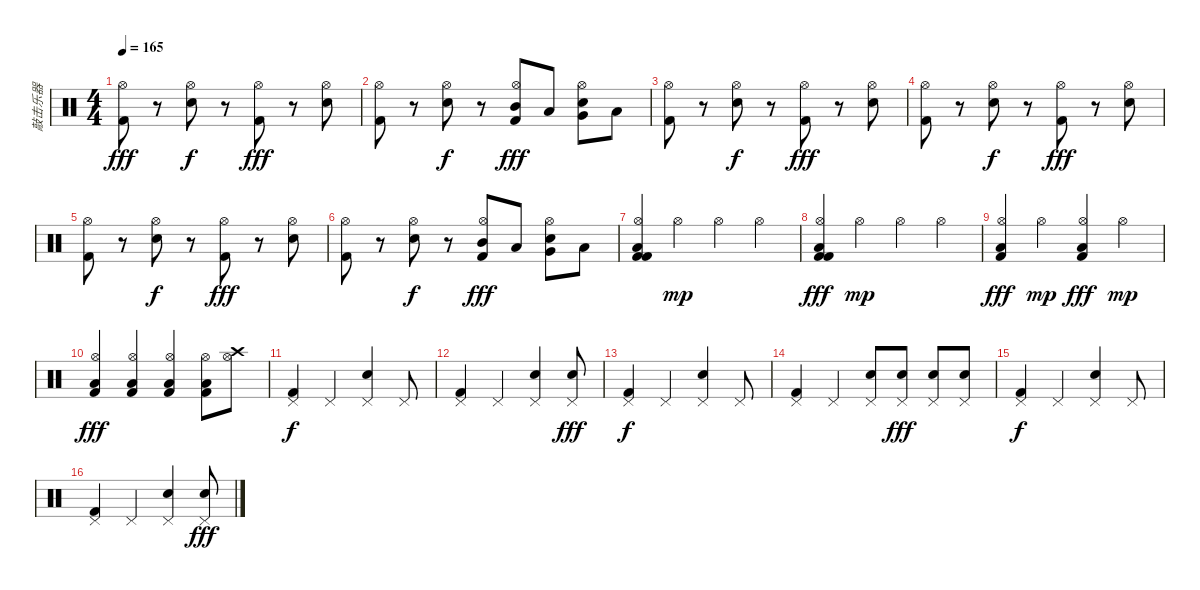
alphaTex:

\track ("敲击乐器" "敲击乐器") {instrument percussion}
\staff {score}
\articulation defaults
\ts (4 4)
\tempo 165
\clef neutral
\ks c
("Kick (hit) 2" "Hi-Hat (open)").8{dy fff} r.8 ("Snare (hit) 2" "Hi-Hat (open)").8{dy f} r.8 ("Kick (hit) 2" "Hi-Hat (open)").8{dy fff} r.8 ("Snare (hit) 2" "Hi-Hat (open)").8 |
("Kick (hit) 2" "Hi-Hat (open)").8 r.8 ("Snare (hit) 2" "Hi-Hat (open)").8{dy f} r.8 ("Kick (hit) 2" "Hi-Hat (open)" "Mid Tom (hit)").8{dy fff} "Low Tom (hit)".8 ("Snare (hit) 2" "Hi-Hat (open)" "Very Low Tom (hit)").8 "Low Floor Tom (hit)".8 |
("Kick (hit) 2" "Hi-Hat (open)").8 r.8 ("Snare (hit) 2" "Hi-Hat (open)").8{dy f} r.8 ("Kick (hit) 2" "Hi-Hat (open)").8{dy fff} r.8 ("Snare (hit) 2" "Hi-Hat (open)").8 |
("Kick (hit) 2" "Hi-Hat (open)").8 r.8 ("Snare (hit) 2" "Hi-Hat (open)").8{dy f} r.8 ("Kick (hit) 2" "Hi-Hat (open)").8{dy fff} r.8 ("Snare (hit) 2" "Hi-Hat (open)").8 |
("Kick (hit) 2" "Hi-Hat (open)").8 r.8 ("Snare (hit) 2" "Hi-Hat (open)").8{dy f} r.8 ("Kick (hit) 2" "Hi-Hat (open)").8{dy fff} r.8 ("Snare (hit) 2" "Hi-Hat (open)").8 |
("Kick (hit) 2" "Hi-Hat (open)").8 r.8 ("Snare (hit) 2" "Hi-Hat (open)").8{dy f} r.8 ("Kick (hit) 2" "Hi-Hat (open)" "Mid Tom (hit)").8{dy fff} "Low Tom (hit)".8 ("Snare (hit) 2" "Hi-Hat (open)" "Very Low Tom (hit)").8 "Low Floor Tom (hit)".8 |
("Hi-Hat (open)" "Kick (hit) 2" "Kick (hit) 2" "Low Floor Tom (hit)").4 "Hi-Hat (open)".4{dy mp} "Hi-Hat (open)".4 "Hi-Hat (open)".4 |
("Hi-Hat (open)" "Kick (hit) 2" "Kick (hit) 2" "Low Floor Tom (hit)").4{dy fff} "Hi-Hat (open)".4{dy mp} "Hi-Hat (open)".4 "Hi-Hat (open)".4 |
("Hi-Hat (open)" "Kick (hit) 2" "Low Floor Tom (hit)").4{dy fff} "Hi-Hat (open)".4{dy mp} ("Hi-Hat (open)" "Low Floor Tom (hit)" "Kick (hit) 2").4{dy fff} "Hi-Hat (open)".4{dy mp} |
("Hi-Hat (open)" "Kick (hit) 2" "Low Floor Tom (hit)").4{dy fff} ("Hi-Hat (open)" "Kick (hit) 2" "Low Floor Tom (hit)").4 ("Hi-Hat (open)" "Low Floor Tom (hit)" "Kick (hit) 2").4 ("Hi-Hat (open)" "Kick (hit) 2" "Low Floor Tom (hit)").8 ("Hi-Hat (open)" "Crash high (hit)").8 |
("Pedal Hi-Hat (hit)" "Kick (hit) 2").4{dy f} "Pedal Hi-Hat (hit)".4 ("Pedal Hi-Hat (hit)" "Snare (hit) 2").4 "Pedal Hi-Hat (hit)".8 |
("Pedal Hi-Hat (hit)" "Kick (hit) 2").4 "Pedal Hi-Hat (hit)".4 ("Pedal Hi-Hat (hit)" "Snare (hit) 2").4 ("Pedal Hi-Hat (hit)" "Snare (hit) 2").8{dy fff} |
("Pedal Hi-Hat (hit)" "Kick (hit) 2").4{dy f} "Pedal Hi-Hat (hit)".4 ("Pedal Hi-Hat (hit)" "Snare (hit) 2").4 "Pedal Hi-Hat (hit)".8 |
("Pedal Hi-Hat (hit)" "Kick (hit) 2").4 "Pedal Hi-Hat (hit)".4 ("Pedal Hi-Hat (hit)" "Snare (hit) 2").8 ("Pedal Hi-Hat (hit)" "Snare (hit) 2").8{dy fff} ("Pedal Hi-Hat (hit)" "Snare (hit) 2").8 ("Pedal Hi-Hat (hit)" "Snare (hit) 2").8 |
("Pedal Hi-Hat (hit)" "Kick (hit) 2").4{dy f} "Pedal Hi-Hat (hit)".4 ("Pedal Hi-Hat (hit)" "Snare (hit) 2").4 "Pedal Hi-Hat (hit)".8 |
("Pedal Hi-Hat (hit)" "Kick (hit) 2").4 "Pedal Hi-Hat (hit)".4 ("Pedal Hi-Hat (hit)" "Snare (hit) 2").4 ("Pedal Hi-Hat (hit)" "Snare (hit) 2").8{dy fff}
